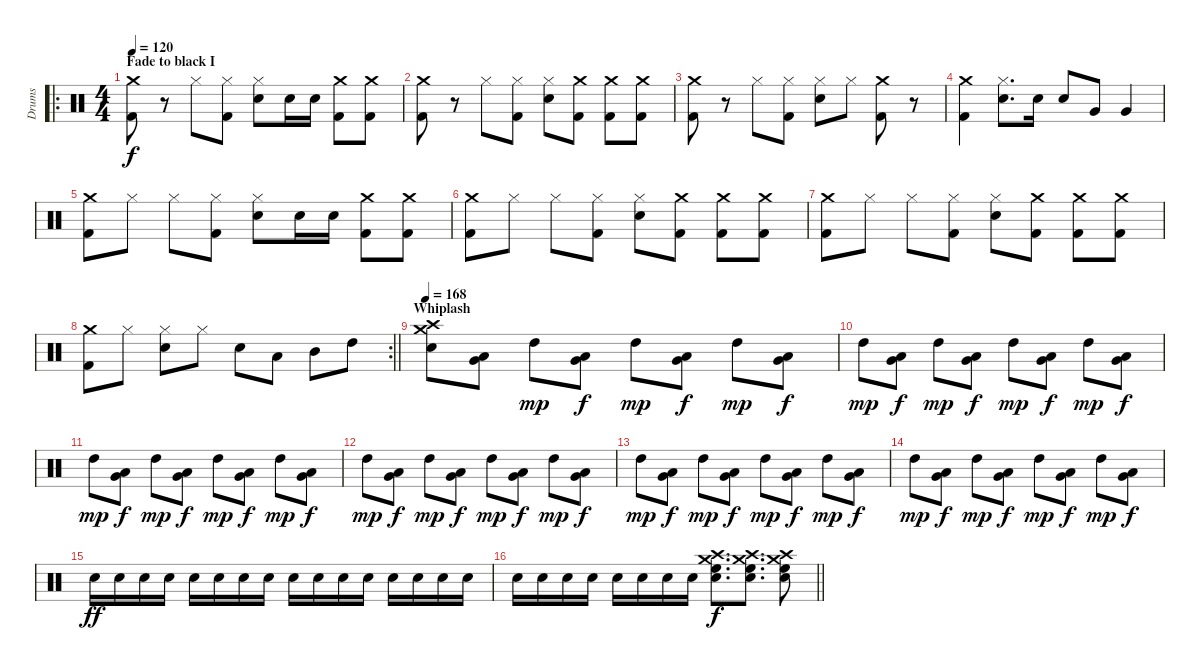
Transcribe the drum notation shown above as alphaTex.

\track ("Drums" "Drums") {instrument percussion}
\staff {score}
\articulation defaults
\ro
\ts (4 4)
\section ("" "Fade to black I")
\tempo 120
\clef neutral
\ks c
("Crash medium (hit)" "Kick (hit) 2").8{dy f} r.8 "Hi-Hat (closed)".8 ("Hi-Hat (closed)" "Kick (hit) 2").8 ("Hi-Hat (closed)" "Snare (hit) 2").8 "Snare (hit) 2".16 "Snare (hit) 2".16 ("Crash medium (hit)" "Kick (hit) 2").8 ("Crash medium (hit)" "Kick (hit) 2").8 |
("Crash medium (hit)" "Kick (hit) 2").8 r.8 "Hi-Hat (closed)".8 ("Hi-Hat (closed)" "Kick (hit) 2").8 ("Hi-Hat (closed)" "Snare (hit) 2").8 ("Crash medium (hit)" "Kick (hit) 2").8 ("Crash medium (hit)" "Kick (hit) 2").8 ("Crash medium (hit)" "Kick (hit) 2").8 |
("Crash medium (hit)" "Kick (hit) 2").8 r.8 "Hi-Hat (closed)".8 ("Hi-Hat (closed)" "Kick (hit) 2").8 ("Hi-Hat (closed)" "Snare (hit) 2").8 "Hi-Hat (closed)".8 ("Crash medium (hit)" "Kick (hit) 2").8 r.8 |
("Crash medium (hit)" "Kick (hit) 2").4 ("Hi-Hat (closed)" "Snare (hit) 2").8{d} "Snare (hit) 2".16 "Snare (hit) 2".8 "Very Low Tom (hit)".8 "Very Low Tom (hit)".4 |
("Crash medium (hit)" "Kick (hit) 2").8 "Hi-Hat (closed)".8 "Hi-Hat (closed)".8 ("Hi-Hat (closed)" "Kick (hit) 2").8 ("Hi-Hat (closed)" "Snare (hit) 2").8 "Snare (hit) 2".16 "Snare (hit) 2".16 ("Crash medium (hit)" "Kick (hit) 2").8 ("Crash medium (hit)" "Kick (hit) 2").8 |
("Crash medium (hit)" "Kick (hit) 2").8 "Hi-Hat (closed)".8 "Hi-Hat (closed)".8 ("Hi-Hat (closed)" "Kick (hit) 2").8 ("Hi-Hat (closed)" "Snare (hit) 2").8 ("Crash medium (hit)" "Kick (hit) 2").8 ("Crash medium (hit)" "Kick (hit) 2").8 ("Crash medium (hit)" "Kick (hit) 2").8 |
("Crash medium (hit)" "Kick (hit) 2").8 "Hi-Hat (closed)".8 "Hi-Hat (closed)".8 ("Hi-Hat (closed)" "Kick (hit) 2").8 ("Hi-Hat (closed)" "Snare (hit) 2").8 ("Crash medium (hit)" "Kick (hit) 2").8 ("Crash medium (hit)" "Kick (hit) 2").8 ("Crash medium (hit)" "Kick (hit) 2").8 |
\rc 2
\barLineRight lightlight
("Crash medium (hit)" "Kick (hit) 2").8 "Hi-Hat (closed)".8 ("Hi-Hat (closed)" "Snare (hit) 2").8 "Hi-Hat (closed)".8 "Snare (hit) 2".8 "Low Tom (hit)".8 "Mid Tom (hit)".8 "High Tom (hit)".8 |
\section ("" "Whiplash")
\tempo 168
("Crash high (hit)" "Crash medium (hit)" "Snare (hit) 2").8 ("Low Tom (hit)" "Very Low Tom (hit)").8 "High Tom (hit)".8{dy mp} ("Low Tom (hit)" "Very Low Tom (hit)").8{dy f} "High Tom (hit)".8{dy mp} ("Low Tom (hit)" "Very Low Tom (hit)").8{dy f} "High Tom (hit)".8{dy mp} ("Low Tom (hit)" "Very Low Tom (hit)").8{dy f} |
"High Tom (hit)".8{dy mp} ("Low Tom (hit)" "Very Low Tom (hit)").8{dy f} "High Tom (hit)".8{dy mp} ("Low Tom (hit)" "Very Low Tom (hit)").8{dy f} "High Tom (hit)".8{dy mp} ("Low Tom (hit)" "Very Low Tom (hit)").8{dy f} "High Tom (hit)".8{dy mp} ("Low Tom (hit)" "Very Low Tom (hit)").8{dy f} |
"High Tom (hit)".8{dy mp} ("Low Tom (hit)" "Very Low Tom (hit)").8{dy f} "High Tom (hit)".8{dy mp} ("Low Tom (hit)" "Very Low Tom (hit)").8{dy f} "High Tom (hit)".8{dy mp} ("Low Tom (hit)" "Very Low Tom (hit)").8{dy f} "High Tom (hit)".8{dy mp} ("Low Tom (hit)" "Very Low Tom (hit)").8{dy f} |
"High Tom (hit)".8{dy mp} ("Low Tom (hit)" "Very Low Tom (hit)").8{dy f} "High Tom (hit)".8{dy mp} ("Low Tom (hit)" "Very Low Tom (hit)").8{dy f} "High Tom (hit)".8{dy mp} ("Low Tom (hit)" "Very Low Tom (hit)").8{dy f} "High Tom (hit)".8{dy mp} ("Low Tom (hit)" "Very Low Tom (hit)").8{dy f} |
"High Tom (hit)".8{dy mp} ("Low Tom (hit)" "Very Low Tom (hit)").8{dy f} "High Tom (hit)".8{dy mp} ("Low Tom (hit)" "Very Low Tom (hit)").8{dy f} "High Tom (hit)".8{dy mp} ("Low Tom (hit)" "Very Low Tom (hit)").8{dy f} "High Tom (hit)".8{dy mp} ("Low Tom (hit)" "Very Low Tom (hit)").8{dy f} |
"High Tom (hit)".8{dy mp} ("Low Tom (hit)" "Very Low Tom (hit)").8{dy f} "High Tom (hit)".8{dy mp} ("Low Tom (hit)" "Very Low Tom (hit)").8{dy f} "High Tom (hit)".8{dy mp} ("Low Tom (hit)" "Very Low Tom (hit)").8{dy f} "High Tom (hit)".8{dy mp} ("Low Tom (hit)" "Very Low Tom (hit)").8{dy f} |
"Snare (hit) 2".16{dy ff} "Snare (hit) 2".16 "Snare (hit) 2".16 "Snare (hit) 2".16 "Snare (hit) 2".16 "Snare (hit) 2".16 "Snare (hit) 2".16 "Snare (hit) 2".16 "Snare (hit) 2".16 "Snare (hit) 2".16 "Snare (hit) 2".16 "Snare (hit) 2".16 "Snare (hit) 2".16 "Snare (hit) 2".16 "Snare (hit) 2".16 "Snare (hit) 2".16 |
\barLineRight lightlight "Snare (hit) 2".16 "Snare (hit) 2".16 "Snare (hit) 2".16 "Snare (hit) 2".16 "Snare (hit) 2".16 "Snare (hit) 2".16 "Snare (hit) 2".16 "Snare (hit) 2".16
("Crash high (hit)" "Crash medium (hit)" "Snare (hit) 2" "High Floor Tom (hit)").8{d dy f} ("Crash high (hit)" "Crash medium (hit)" "Snare (hit) 2" "High Floor Tom (hit)").8{d} ("Crash high (hit)" "Crash medium (hit)" "Snare (hit) 2" "High Floor Tom (hit)").8
